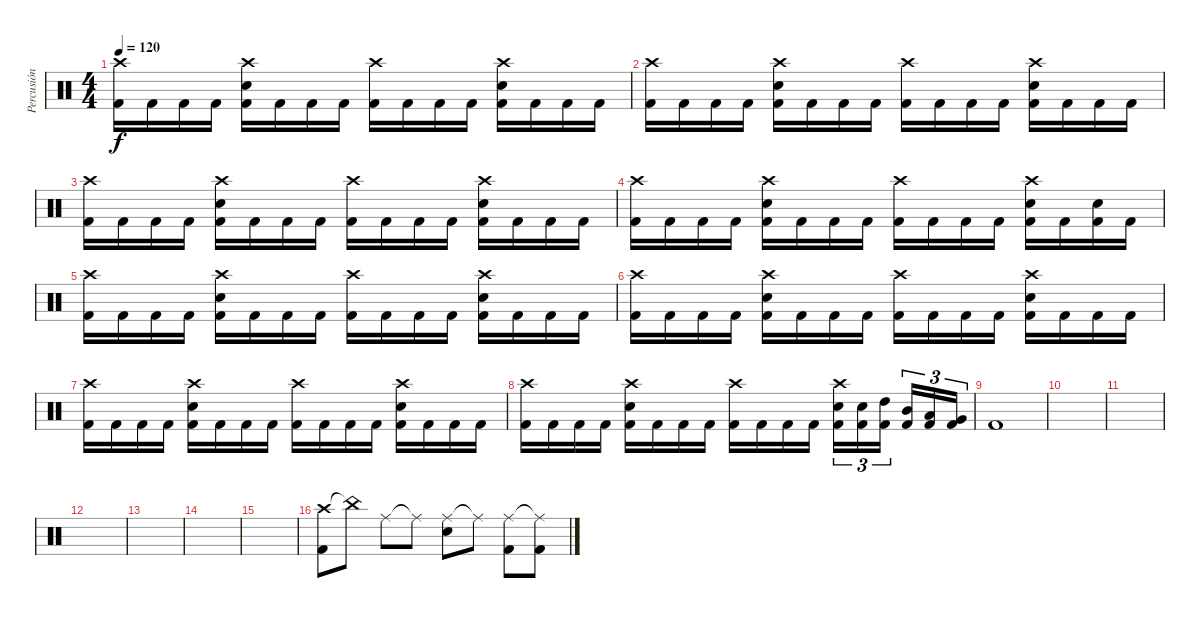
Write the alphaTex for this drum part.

\track ("Percusión" "Percusión") {instrument percussion}
\staff {score}
\articulation defaults
\ts (4 4)
\tempo 120
\clef neutral
\ks c
("Crash high (hit)" "Kick (hit) 2").16{dy f} "Kick (hit) 2".16 "Kick (hit) 2".16 "Kick (hit) 2".16 ("Crash high (hit)" "Snare (hit) 2" "Kick (hit) 2").16 "Kick (hit) 2".16 "Kick (hit) 2".16 "Kick (hit) 2".16 ("Crash high (hit)" "Kick (hit) 2").16 "Kick (hit) 2".16 "Kick (hit) 2".16 "Kick (hit) 2".16 ("Crash high (hit)" "Snare (hit) 2" "Kick (hit) 2").16 "Kick (hit) 2".16 "Kick (hit) 2".16 "Kick (hit) 2".16 |
("Crash high (hit)" "Kick (hit) 2").16 "Kick (hit) 2".16 "Kick (hit) 2".16 "Kick (hit) 2".16 ("Crash high (hit)" "Snare (hit) 2" "Kick (hit) 2").16 "Kick (hit) 2".16 "Kick (hit) 2".16 "Kick (hit) 2".16 ("Crash high (hit)" "Kick (hit) 2").16 "Kick (hit) 2".16 "Kick (hit) 2".16 "Kick (hit) 2".16 ("Crash high (hit)" "Snare (hit) 2" "Kick (hit) 2").16 "Kick (hit) 2".16 "Kick (hit) 2".16 "Kick (hit) 2".16 |
("Crash high (hit)" "Kick (hit) 2").16 "Kick (hit) 2".16 "Kick (hit) 2".16 "Kick (hit) 2".16 ("Crash high (hit)" "Snare (hit) 2" "Kick (hit) 2").16 "Kick (hit) 2".16 "Kick (hit) 2".16 "Kick (hit) 2".16 ("Crash high (hit)" "Kick (hit) 2").16 "Kick (hit) 2".16 "Kick (hit) 2".16 "Kick (hit) 2".16 ("Crash high (hit)" "Snare (hit) 2" "Kick (hit) 2").16 "Kick (hit) 2".16 "Kick (hit) 2".16 "Kick (hit) 2".16 |
("Crash high (hit)" "Kick (hit) 2").16 "Kick (hit) 2".16 "Kick (hit) 2".16 "Kick (hit) 2".16 ("Crash high (hit)" "Snare (hit) 2" "Kick (hit) 2").16 "Kick (hit) 2".16 "Kick (hit) 2".16 "Kick (hit) 2".16 ("Crash high (hit)" "Kick (hit) 2").16 "Kick (hit) 2".16 "Kick (hit) 2".16 "Kick (hit) 2".16 ("Crash high (hit)" "Snare (hit) 2" "Kick (hit) 2").16 "Kick (hit) 2".16 ("Snare (hit) 2" "Kick (hit) 2").16 "Kick (hit) 2".16 |
("Crash high (hit)" "Kick (hit) 2").16 "Kick (hit) 2".16 "Kick (hit) 2".16 "Kick (hit) 2".16 ("Crash high (hit)" "Snare (hit) 2" "Kick (hit) 2").16 "Kick (hit) 2".16 "Kick (hit) 2".16 "Kick (hit) 2".16 ("Crash high (hit)" "Kick (hit) 2").16 "Kick (hit) 2".16 "Kick (hit) 2".16 "Kick (hit) 2".16 ("Crash high (hit)" "Snare (hit) 2" "Kick (hit) 2").16 "Kick (hit) 2".16 "Kick (hit) 2".16 "Kick (hit) 2".16 |
("Crash high (hit)" "Kick (hit) 2").16 "Kick (hit) 2".16 "Kick (hit) 2".16 "Kick (hit) 2".16 ("Crash high (hit)" "Snare (hit) 2" "Kick (hit) 2").16 "Kick (hit) 2".16 "Kick (hit) 2".16 "Kick (hit) 2".16 ("Crash high (hit)" "Kick (hit) 2").16 "Kick (hit) 2".16 "Kick (hit) 2".16 "Kick (hit) 2".16 ("Crash high (hit)" "Snare (hit) 2" "Kick (hit) 2").16 "Kick (hit) 2".16 "Kick (hit) 2".16 "Kick (hit) 2".16 |
("Crash high (hit)" "Kick (hit) 2").16 "Kick (hit) 2".16 "Kick (hit) 2".16 "Kick (hit) 2".16 ("Crash high (hit)" "Snare (hit) 2" "Kick (hit) 2").16 "Kick (hit) 2".16 "Kick (hit) 2".16 "Kick (hit) 2".16 ("Crash high (hit)" "Kick (hit) 2").16 "Kick (hit) 2".16 "Kick (hit) 2".16 "Kick (hit) 2".16 ("Crash high (hit)" "Snare (hit) 2" "Kick (hit) 2").16 "Kick (hit) 2".16 "Kick (hit) 2".16 "Kick (hit) 2".16 |
("Crash high (hit)" "Kick (hit) 2").16 "Kick (hit) 2".16 "Kick (hit) 2".16 "Kick (hit) 2".16 ("Crash high (hit)" "Snare (hit) 2" "Kick (hit) 2").16 "Kick (hit) 2".16 "Kick (hit) 2".16 "Kick (hit) 2".16 ("Crash high (hit)" "Kick (hit) 2").16 "Kick (hit) 2".16 "Kick (hit) 2".16 "Kick (hit) 2".16 ("Crash high (hit)" "Snare (hit) 2" "Kick (hit) 2").16{tu (3 2)} ("Snare (hit) 2" "Kick (hit) 2").16{tu (3 2)} ("High Tom (hit)" "Kick (hit) 2").16{tu (3 2) beam splitsecondary} ("Mid Tom (hit)" "Kick (hit) 2").16{tu (3 2)} ("Low Tom (hit)" "Kick (hit) 2").16{tu (3 2)} ("Very Low Tom (hit)" "Kick (hit) 2").16{tu (3 2)} |
"Kick (hit) 2".1 |
|
|
|
|
|
|
("Crash high (hit)" "Kick (hit) 2").8 "China (hit)"{t}.8 "Ride (middle)".8 "Ride (middle)"{t}.8 ("Ride (middle)" "Snare (hit) 2").8 "Ride (middle)"{t}.8 ("Ride (middle)" "Kick (hit) 2").8 ("Ride (middle)"{t} "Kick (hit) 2").8
